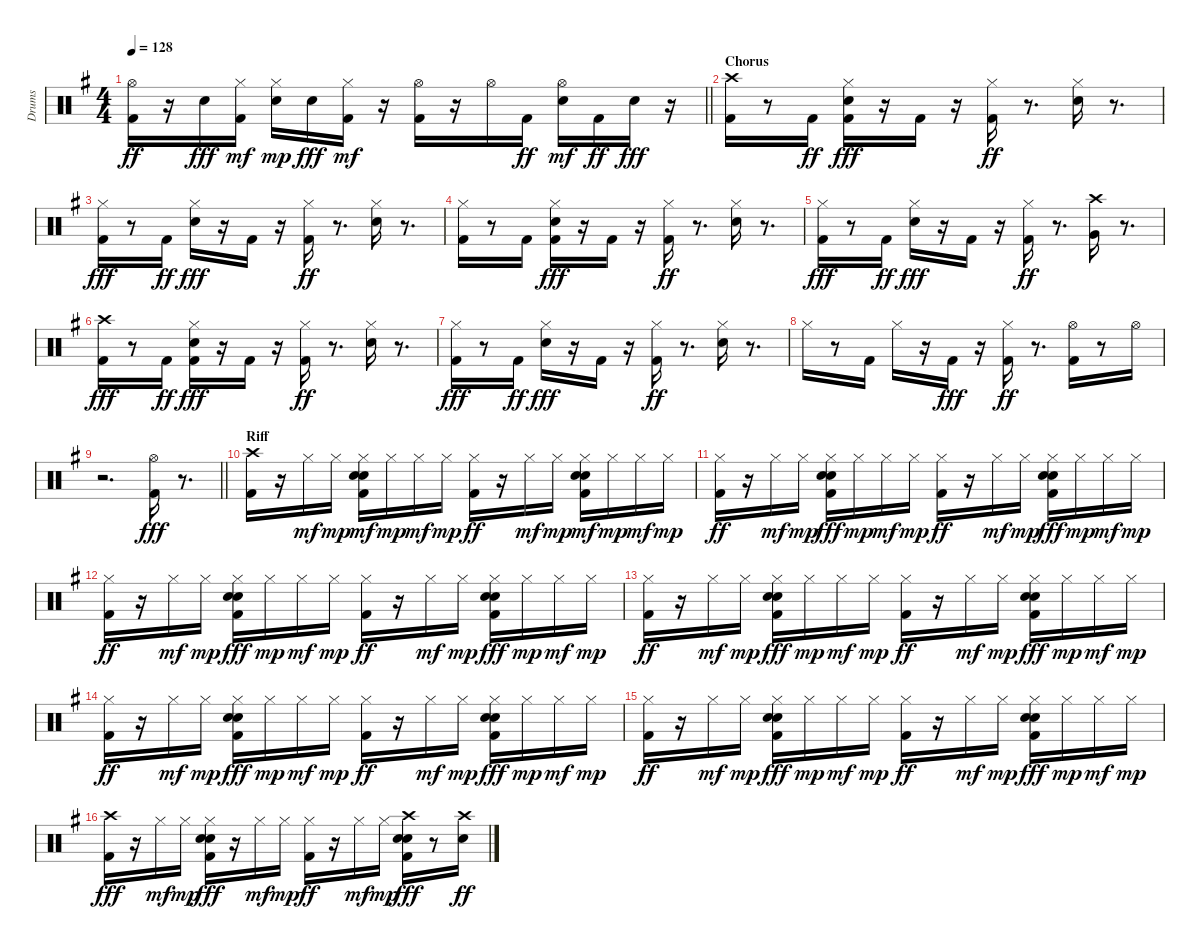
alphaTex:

\track ("Drums" "Drums") {instrument percussion}
\staff {score}
\articulation defaults
\ts (4 4)
\tempo 128
\clef neutral
\barLineRight lightlight
\ks eminor
("Kick (hit) 2" "Hi-Hat (open)").16{dy ff} r.16 "Electric Snare (hit)".16{dy fff} ("Kick (hit) 2" "Hi-Hat (closed)").16{dy mf} ("Hand Clap (hit)" "Hi-Hat (closed)").16{dy mp} "Electric Snare (hit)".16{dy fff} ("Kick (hit) 2" "Hi-Hat (closed)").16{dy mf} r.16 ("Kick (hit) 2" "Hi-Hat (open)").16 r.16 "Hi-Hat (open)".16 "Kick (hit) 2".16{dy ff} ("Hand Clap (hit)" "Hi-Hat (open)").16{dy mf} "Kick (hit) 2".16{dy ff} "Electric Snare (hit)".16{dy fff} r.16 |
\section ("" "Chorus")
("Kick (hit) 2" "Crash high (hit)").16 r.8 "Kick (hit) 2".16{dy ff} ("Kick (hit) 2" "Hi-Hat (closed)" "Electric Snare (hit)").16{dy fff} r.16 "Kick (hit) 2".16 r.16 ("Kick (hit) 2" "Hi-Hat (closed)").16{dy ff} r.8{d} ("Electric Snare (hit)" "Hi-Hat (closed)").16 r.8{d} |
("Hi-Hat (closed)" "Kick (hit) 2").16{dy fff} r.8 "Kick (hit) 2".16{dy ff} ("Hi-Hat (closed)" "Electric Snare (hit)").16{dy fff} r.16 "Kick (hit) 2".16 r.16 ("Kick (hit) 2" "Hi-Hat (closed)").16{dy ff} r.8{d} ("Electric Snare (hit)" "Hi-Hat (closed)").16 r.8{d} |
("Kick (hit) 2" "Hi-Hat (closed)").16 r.8 "Kick (hit) 2".16 ("Kick (hit) 2" "Hi-Hat (closed)" "Electric Snare (hit)").16{dy fff} r.16 "Kick (hit) 2".16 r.16 ("Kick (hit) 2" "Hi-Hat (closed)").16{dy ff} r.8{d} ("Electric Snare (hit)" "Hi-Hat (closed)").16 r.8{d} |
("Hi-Hat (closed)" "Kick (hit) 2").16{dy fff} r.8 "Kick (hit) 2".16{dy ff} ("Hi-Hat (closed)" "Electric Snare (hit)").16{dy fff} r.16 "Kick (hit) 2".16 r.16 ("Kick (hit) 2" "Hi-Hat (closed)").16{dy ff} r.8{d} ("Crash high (hit)" "Very Low Tom (hit)").16 r.8{d} |
("Kick (hit) 2" "Crash high (hit)").16{dy fff} r.8 "Kick (hit) 2".16{dy ff} ("Kick (hit) 2" "Hi-Hat (closed)" "Electric Snare (hit)").16{dy fff} r.16 "Kick (hit) 2".16 r.16 ("Kick (hit) 2" "Hi-Hat (closed)").16{dy ff} r.8{d} ("Electric Snare (hit)" "Hi-Hat (closed)").16 r.8{d} |
("Hi-Hat (closed)" "Kick (hit) 2").16{dy fff} r.8 "Kick (hit) 2".16{dy ff} ("Hi-Hat (closed)" "Electric Snare (hit)").16{dy fff} r.16 "Kick (hit) 2".16 r.16 ("Kick (hit) 2" "Hi-Hat (closed)").16{dy ff} r.8{d} ("Electric Snare (hit)" "Hi-Hat (closed)").16 r.8{d} |
"Hi-Hat (closed)".16 r.8 "Kick (hit) 2".16 "Hi-Hat (closed)".16 r.16 "Kick (hit) 2".16{dy fff} r.16 ("Kick (hit) 2" "Hi-Hat (closed)").16{dy ff} r.8{d} ("Kick (hit) 2" "Hi-Hat (open)").16 r.8 "Hi-Hat (open)".16 |
\barLineRight lightlight
r.2{d} ("Hi-Hat (open)" "Kick (hit) 2").16{dy fff} r.8{d} |
\section ("" "Riff")
("Crash high (hit)" "Kick (hit) 2").16 r.16 "Hi-Hat (closed)".16{dy mf} "Hi-Hat (closed)".16{dy mp} ("Hand Clap (hit)" "Electric Snare (hit)" "Kick (hit) 2" "Hi-Hat (closed)").16{dy mf} "Hi-Hat (closed)".16{dy mp} "Hi-Hat (closed)".16{dy mf} "Hi-Hat (closed)".16{dy mp} ("Kick (hit) 2" "Hi-Hat (closed)").16{dy ff} r.16 "Hi-Hat (closed)".16{dy mf} "Hi-Hat (closed)".16{dy mp} ("Hand Clap (hit)" "Kick (hit) 2" "Electric Snare (hit)" "Hi-Hat (closed)").16{dy mf} "Hi-Hat (closed)".16{dy mp} "Hi-Hat (closed)".16{dy mf} "Hi-Hat (closed)".16{dy mp} |
("Kick (hit) 2" "Hi-Hat (closed)").16{dy ff} r.16 "Hi-Hat (closed)".16{dy mf} "Hi-Hat (closed)".16{dy mp} ("Hand Clap (hit)" "Kick (hit) 2" "Hi-Hat (closed)" "Electric Snare (hit)").16{dy fff} "Hi-Hat (closed)".16{dy mp} "Hi-Hat (closed)".16{dy mf} "Hi-Hat (closed)".16{dy mp} ("Kick (hit) 2" "Hi-Hat (closed)").16{dy ff} r.16 "Hi-Hat (closed)".16{dy mf} "Hi-Hat (closed)".16{dy mp} ("Hand Clap (hit)" "Kick (hit) 2" "Hi-Hat (closed)" "Electric Snare (hit)").16{dy fff} "Hi-Hat (closed)".16{dy mp} "Hi-Hat (closed)".16{dy mf} "Hi-Hat (closed)".16{dy mp} |
("Kick (hit) 2" "Hi-Hat (closed)").16{dy ff} r.16 "Hi-Hat (closed)".16{dy mf} "Hi-Hat (closed)".16{dy mp} ("Hand Clap (hit)" "Kick (hit) 2" "Hi-Hat (closed)" "Electric Snare (hit)").16{dy fff} "Hi-Hat (closed)".16{dy mp} "Hi-Hat (closed)".16{dy mf} "Hi-Hat (closed)".16{dy mp} ("Kick (hit) 2" "Hi-Hat (closed)").16{dy ff} r.16 "Hi-Hat (closed)".16{dy mf} "Hi-Hat (closed)".16{dy mp} ("Hand Clap (hit)" "Kick (hit) 2" "Hi-Hat (closed)" "Electric Snare (hit)").16{dy fff} "Hi-Hat (closed)".16{dy mp} "Hi-Hat (closed)".16{dy mf} "Hi-Hat (closed)".16{dy mp} |
("Kick (hit) 2" "Hi-Hat (closed)").16{dy ff} r.16 "Hi-Hat (closed)".16{dy mf} "Hi-Hat (closed)".16{dy mp} ("Hand Clap (hit)" "Kick (hit) 2" "Hi-Hat (closed)" "Electric Snare (hit)").16{dy fff} "Hi-Hat (closed)".16{dy mp} "Hi-Hat (closed)".16{dy mf} "Hi-Hat (closed)".16{dy mp} ("Kick (hit) 2" "Hi-Hat (closed)").16{dy ff} r.16 "Hi-Hat (closed)".16{dy mf} "Hi-Hat (closed)".16{dy mp} ("Hand Clap (hit)" "Kick (hit) 2" "Hi-Hat (closed)" "Electric Snare (hit)").16{dy fff} "Hi-Hat (closed)".16{dy mp} "Hi-Hat (closed)".16{dy mf} "Hi-Hat (closed)".16{dy mp} |
("Kick (hit) 2" "Hi-Hat (closed)").16{dy ff} r.16 "Hi-Hat (closed)".16{dy mf} "Hi-Hat (closed)".16{dy mp} ("Hand Clap (hit)" "Kick (hit) 2" "Hi-Hat (closed)" "Electric Snare (hit)").16{dy fff} "Hi-Hat (closed)".16{dy mp} "Hi-Hat (closed)".16{dy mf} "Hi-Hat (closed)".16{dy mp} ("Kick (hit) 2" "Hi-Hat (closed)").16{dy ff} r.16 "Hi-Hat (closed)".16{dy mf} "Hi-Hat (closed)".16{dy mp} ("Hand Clap (hit)" "Kick (hit) 2" "Hi-Hat (closed)" "Electric Snare (hit)").16{dy fff} "Hi-Hat (closed)".16{dy mp} "Hi-Hat (closed)".16{dy mf} "Hi-Hat (closed)".16{dy mp} |
("Kick (hit) 2" "Hi-Hat (closed)").16{dy ff} r.16 "Hi-Hat (closed)".16{dy mf} "Hi-Hat (closed)".16{dy mp} ("Hand Clap (hit)" "Kick (hit) 2" "Hi-Hat (closed)" "Electric Snare (hit)").16{dy fff} "Hi-Hat (closed)".16{dy mp} "Hi-Hat (closed)".16{dy mf} "Hi-Hat (closed)".16{dy mp} ("Kick (hit) 2" "Hi-Hat (closed)").16{dy ff} r.16 "Hi-Hat (closed)".16{dy mf} "Hi-Hat (closed)".16{dy mp} ("Hand Clap (hit)" "Kick (hit) 2" "Hi-Hat (closed)" "Electric Snare (hit)").16{dy fff} "Hi-Hat (closed)".16{dy mp} "Hi-Hat (closed)".16{dy mf} "Hi-Hat (closed)".16{dy mp} |
("Kick (hit) 2" "Crash high (hit)").16{dy fff} r.16 "Hi-Hat (closed)".16{dy mf} "Hi-Hat (closed)".16{dy mp} ("Hand Clap (hit)" "Kick (hit) 2" "Hi-Hat (closed)" "Electric Snare (hit)").16{dy fff} r.16 "Hi-Hat (closed)".16{dy mf} "Hi-Hat (closed)".16{dy mp} ("Kick (hit) 2" "Hi-Hat (closed)").16{dy ff} r.16 "Hi-Hat (closed)".16{dy mf} "Hi-Hat (closed)".16{dy mp} ("Hand Clap (hit)" "Kick (hit) 2" "Electric Snare (hit)" "Crash high (hit)").16{dy fff} r.8 ("Crash high (hit)" "Electric Snare (hit)").16{dy ff}
